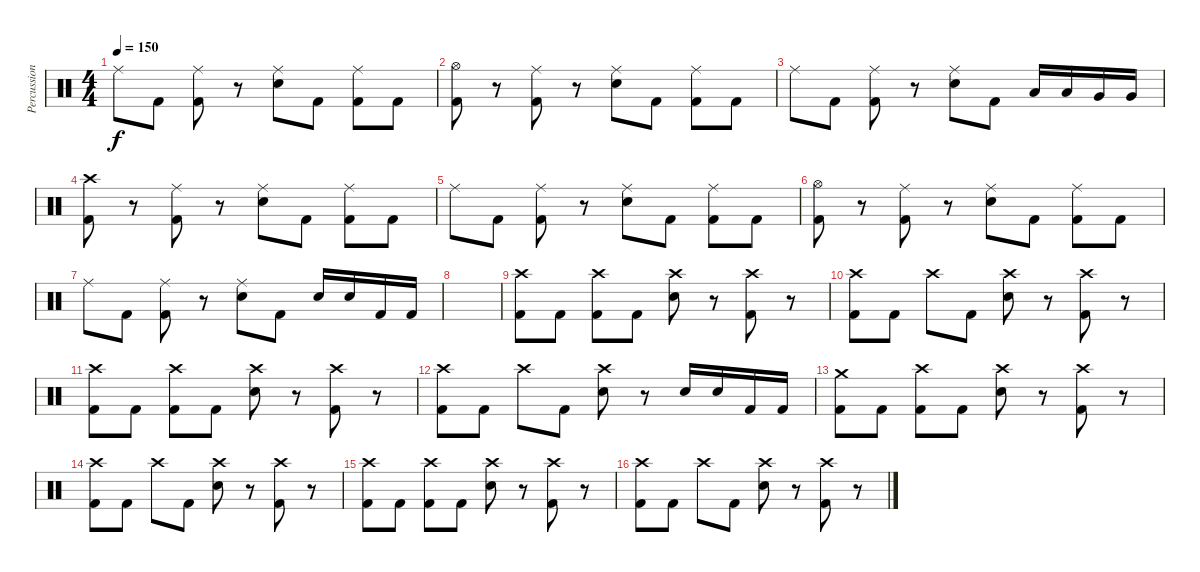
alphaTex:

\track ("Percussion" "Percussion") {instrument percussion}
\staff {score}
\articulation defaults
\ts (4 4)
\tempo 150
\clef neutral
\ks c "Ride (middle)".8{dy f} "Kick (hit) 2".8
("Ride (middle)" "Kick (hit) 2").8 r.8 ("Ride (middle)" "Electric Snare (hit)").8 "Kick (hit) 2".8 ("Ride (middle)" "Kick (hit) 2").8 "Kick (hit) 2".8 |
("Hi-Hat (open)" "Kick (hit) 2").8 r.8 ("Ride (middle)" "Kick (hit) 2").8 r.8 ("Ride (middle)" "Electric Snare (hit)").8 "Kick (hit) 2".8 ("Ride (middle)" "Kick (hit) 2").8 "Kick (hit) 2".8 |
"Ride (middle)".8 "Kick (hit) 2".8 ("Ride (middle)" "Kick (hit) 2").8 r.8 ("Ride (middle)" "Electric Snare (hit)").8 "Kick (hit) 2".8 "Low Tom (hit)".16 "Low Tom (hit)".16 "Very Low Tom (hit)".16 "Very Low Tom (hit)".16 |
("Crash high (hit)" "Kick (hit) 2").8 r.8 ("Ride (middle)" "Kick (hit) 2").8 r.8 ("Ride (middle)" "Electric Snare (hit)").8 "Kick (hit) 2".8 ("Ride (middle)" "Kick (hit) 2").8 "Kick (hit) 2".8 |
"Ride (middle)".8 "Kick (hit) 2".8 ("Ride (middle)" "Kick (hit) 2").8 r.8 ("Ride (middle)" "Electric Snare (hit)").8 "Kick (hit) 2".8 ("Ride (middle)" "Kick (hit) 2").8 "Kick (hit) 2".8 |
("Hi-Hat (open)" "Kick (hit) 2").8 r.8 ("Ride (middle)" "Kick (hit) 2").8 r.8 ("Ride (middle)" "Electric Snare (hit)").8 "Kick (hit) 2".8 ("Ride (middle)" "Kick (hit) 2").8 "Kick (hit) 2".8 |
"Ride (middle)".8 "Kick (hit) 2".8 ("Ride (middle)" "Kick (hit) 2").8 r.8 ("Ride (middle)" "Electric Snare (hit)").8 "Kick (hit) 2".8 "Electric Snare (hit)".16 "Electric Snare (hit)".16 "Kick (hit) 2".16 "Kick (hit) 2".16 |
|
("Crash high (hit)" "Kick (hit) 2").8 "Kick (hit) 2".8 ("Crash high (hit)" "Kick (hit) 2").8 "Kick (hit) 2".8 ("Crash high (hit)" "Electric Snare (hit)").8 r.8 ("Crash high (hit)" "Kick (hit) 2").8 r.8 |
("Crash high (hit)" "Kick (hit) 2").8 "Kick (hit) 2".8 "Crash high (hit)".8 "Kick (hit) 2".8 ("Crash high (hit)" "Electric Snare (hit)").8 r.8 ("Crash high (hit)" "Kick (hit) 2").8 r.8 |
("Crash high (hit)" "Kick (hit) 2").8 "Kick (hit) 2".8 ("Crash high (hit)" "Kick (hit) 2").8 "Kick (hit) 2".8 ("Crash high (hit)" "Electric Snare (hit)").8 r.8 ("Crash high (hit)" "Kick (hit) 2").8 r.8 |
("Crash high (hit)" "Kick (hit) 2").8 "Kick (hit) 2".8 "Crash high (hit)".8 "Kick (hit) 2".8 ("Crash high (hit)" "Electric Snare (hit)").8 r.8 "Electric Snare (hit)".16 "Electric Snare (hit)".16 "Kick (hit) 2".16 "Kick (hit) 2".16 |
("Crash medium (hit)" "Kick (hit) 2").8 "Kick (hit) 2".8 ("Crash high (hit)" "Kick (hit) 2").8 "Kick (hit) 2".8 ("Crash high (hit)" "Electric Snare (hit)").8 r.8 ("Crash high (hit)" "Kick (hit) 2").8 r.8 |
("Crash high (hit)" "Kick (hit) 2").8 "Kick (hit) 2".8 "Crash high (hit)".8 "Kick (hit) 2".8 ("Crash high (hit)" "Electric Snare (hit)").8 r.8 ("Crash high (hit)" "Kick (hit) 2").8 r.8 |
("Crash high (hit)" "Kick (hit) 2").8 "Kick (hit) 2".8 ("Crash high (hit)" "Kick (hit) 2").8 "Kick (hit) 2".8 ("Crash high (hit)" "Electric Snare (hit)").8 r.8 ("Crash high (hit)" "Kick (hit) 2").8 r.8 |
("Crash high (hit)" "Kick (hit) 2").8 "Kick (hit) 2".8 "Crash high (hit)".8 "Kick (hit) 2".8 ("Crash high (hit)" "Electric Snare (hit)").8 r.8 ("Crash high (hit)" "Kick (hit) 2").8 r.8
